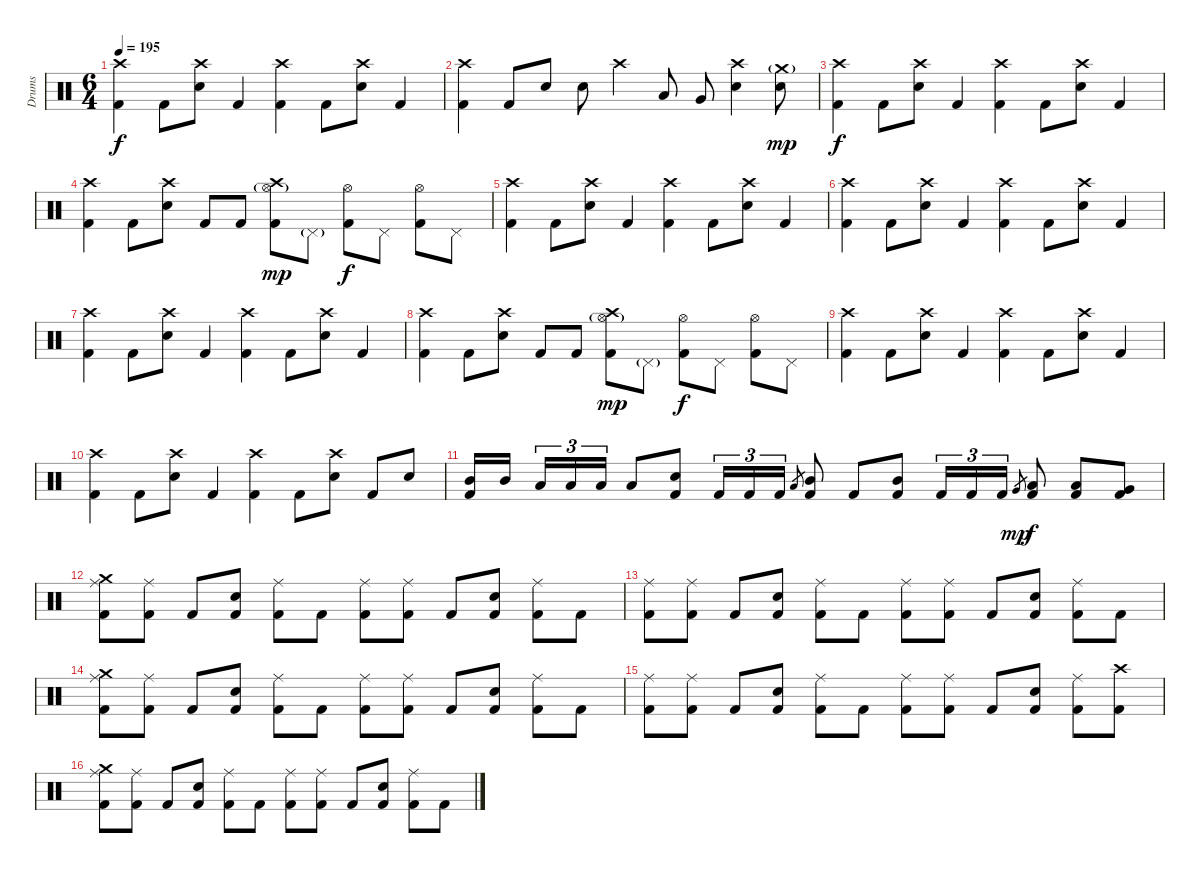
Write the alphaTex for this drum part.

\track ("Drums" "Drums") {instrument percussion}
\staff {score}
\articulation defaults
\ts (6 4)
\tempo 195
\clef neutral
\ks c
("Crash high (hit)" "Kick (hit) 2").4{dy f} "Kick (hit) 2".8 ("Crash high (hit)" "Electric Snare (hit)").8 "Kick (hit) 2".4 ("Crash high (hit)" "Kick (hit) 2").4 "Kick (hit) 2".8 ("Crash high (hit)" "Electric Snare (hit)").8 "Kick (hit) 2".4 |
("Crash high (hit)" "Kick (hit) 2").4 "Kick (hit) 2".8 "Electric Snare (hit)".8 "Electric Snare (hit)".8 "Crash high (hit)".4 "Low Tom (hit)".8 "Very Low Tom (hit)".8 ("Crash high (hit)" "Electric Snare (hit)").4 ("Crash medium (hit)"{g} "Electric Snare (hit)").8{dy mp} |
("Crash high (hit)" "Kick (hit) 2").4{dy f} "Kick (hit) 2".8 ("Crash high (hit)" "Electric Snare (hit)").8 "Kick (hit) 2".4 ("Crash high (hit)" "Kick (hit) 2").4 "Kick (hit) 2".8 ("Crash high (hit)" "Electric Snare (hit)").8 "Kick (hit) 2".4 |
("Crash high (hit)" "Kick (hit) 2").4 "Kick (hit) 2".8 ("Crash high (hit)" "Electric Snare (hit)").8 "Kick (hit) 2".8 "Kick (hit) 2".8 ("Crash high (hit)" "Hi-Hat (open)"{g} "Kick (hit) 2").8{dy mp} "Pedal Hi-Hat (hit)"{g}.8 ("Hi-Hat (open)" "Kick (hit) 2").8{dy f} "Pedal Hi-Hat (hit)".8 ("Hi-Hat (open)" "Kick (hit) 2").8 "Pedal Hi-Hat (hit)".8 |
("Crash high (hit)" "Kick (hit) 2").4 "Kick (hit) 2".8 ("Crash high (hit)" "Electric Snare (hit)").8 "Kick (hit) 2".4 ("Crash high (hit)" "Kick (hit) 2").4 "Kick (hit) 2".8 ("Crash high (hit)" "Electric Snare (hit)").8 "Kick (hit) 2".4 |
("Crash high (hit)" "Kick (hit) 2").4 "Kick (hit) 2".8 ("Crash high (hit)" "Electric Snare (hit)").8 "Kick (hit) 2".4 ("Crash high (hit)" "Kick (hit) 2").4 "Kick (hit) 2".8 ("Crash high (hit)" "Electric Snare (hit)").8 "Kick (hit) 2".4 |
("Crash high (hit)" "Kick (hit) 2").4 "Kick (hit) 2".8 ("Crash high (hit)" "Electric Snare (hit)").8 "Kick (hit) 2".4 ("Crash high (hit)" "Kick (hit) 2").4 "Kick (hit) 2".8 ("Crash high (hit)" "Electric Snare (hit)").8 "Kick (hit) 2".4 |
("Crash high (hit)" "Kick (hit) 2").4 "Kick (hit) 2".8 ("Crash high (hit)" "Electric Snare (hit)").8 "Kick (hit) 2".8 "Kick (hit) 2".8 ("Crash high (hit)" "Hi-Hat (open)"{g} "Kick (hit) 2").8{dy mp} "Pedal Hi-Hat (hit)"{g}.8 ("Hi-Hat (open)" "Kick (hit) 2").8{dy f} "Pedal Hi-Hat (hit)".8 ("Hi-Hat (open)" "Kick (hit) 2").8 "Pedal Hi-Hat (hit)".8 |
("Crash high (hit)" "Kick (hit) 2").4 "Kick (hit) 2".8 ("Crash high (hit)" "Electric Snare (hit)").8 "Kick (hit) 2".4 ("Crash high (hit)" "Kick (hit) 2").4 "Kick (hit) 2".8 ("Crash high (hit)" "Electric Snare (hit)").8 "Kick (hit) 2".4 |
("Crash high (hit)" "Kick (hit) 2").4 "Kick (hit) 2".8 ("Crash high (hit)" "Electric Snare (hit)").8 "Kick (hit) 2".4 ("Crash high (hit)" "Kick (hit) 2").4 "Kick (hit) 2".8 ("Crash high (hit)" "Electric Snare (hit)").8 "Kick (hit) 2".8 "Electric Snare (hit)".8 |
("Mid Tom (hit)" "Kick (hit) 2").16 "Mid Tom (hit)".16{beam splitsecondary} "Low Tom (hit)".16{tu (3 2)} "Low Tom (hit)".16{tu (3 2)} "Low Tom (hit)".16{tu (3 2)} "Low Tom (hit)".8 ("Electric Snare (hit)" "Kick (hit) 2").8 "Kick (hit) 2".16{tu (3 2)} "Kick (hit) 2".16{tu (3 2)} "Kick (hit) 2".16{tu (3 2)} "Low Tom (hit)".8{gr} ("Mid Tom (hit)" "Kick (hit) 2").8 "Kick (hit) 2".8 ("Mid Tom (hit)" "Kick (hit) 2").8 "Kick (hit) 2".16{tu (3 2)} "Kick (hit) 2".16{tu (3 2)} "Kick (hit) 2".16{tu (3 2)} "Very Low Tom (hit)".8{gr dy mp} ("Low Tom (hit)" "Kick (hit) 2").8{dy f} ("Low Tom (hit)" "Kick (hit) 2").8 ("Very Low Tom (hit)" "Kick (hit) 2").8 |
("Ride (middle)" "Crash medium (hit)" "Kick (hit) 2").8{volume 13} ("Ride (middle)" "Kick (hit) 2").8 "Kick (hit) 2".8 ("Electric Snare (hit)" "Kick (hit) 2").8 ("Ride (middle)" "Kick (hit) 2").8 "Kick (hit) 2".8 ("Ride (middle)" "Kick (hit) 2").8 ("Ride (middle)" "Kick (hit) 2").8 "Kick (hit) 2".8 ("Electric Snare (hit)" "Kick (hit) 2").8 ("Ride (middle)" "Kick (hit) 2").8 "Kick (hit) 2".8 |
("Ride (middle)" "Kick (hit) 2").8 ("Ride (middle)" "Kick (hit) 2").8 "Kick (hit) 2".8 ("Electric Snare (hit)" "Kick (hit) 2").8 ("Ride (middle)" "Kick (hit) 2").8 "Kick (hit) 2".8 ("Ride (middle)" "Kick (hit) 2").8 ("Ride (middle)" "Kick (hit) 2").8 "Kick (hit) 2".8 ("Electric Snare (hit)" "Kick (hit) 2").8 ("Ride (middle)" "Kick (hit) 2").8 "Kick (hit) 2".8 |
("Ride (middle)" "Crash medium (hit)" "Kick (hit) 2").8 ("Ride (middle)" "Kick (hit) 2").8 "Kick (hit) 2".8 ("Electric Snare (hit)" "Kick (hit) 2").8 ("Ride (middle)" "Kick (hit) 2").8 "Kick (hit) 2".8 ("Ride (middle)" "Kick (hit) 2").8 ("Ride (middle)" "Kick (hit) 2").8 "Kick (hit) 2".8 ("Electric Snare (hit)" "Kick (hit) 2").8 ("Ride (middle)" "Kick (hit) 2").8 "Kick (hit) 2".8 |
("Ride (middle)" "Kick (hit) 2").8 ("Ride (middle)" "Kick (hit) 2").8 "Kick (hit) 2".8 ("Electric Snare (hit)" "Kick (hit) 2").8 ("Ride (middle)" "Kick (hit) 2").8 "Kick (hit) 2".8 ("Ride (middle)" "Kick (hit) 2").8 ("Ride (middle)" "Kick (hit) 2").8 "Kick (hit) 2".8 ("Electric Snare (hit)" "Kick (hit) 2").8 ("Ride (middle)" "Kick (hit) 2").8 ("Crash high (hit)" "Kick (hit) 2").8 |
("Ride (middle)" "Crash medium (hit)" "Kick (hit) 2").8 ("Ride (middle)" "Kick (hit) 2").8 "Kick (hit) 2".8 ("Electric Snare (hit)" "Kick (hit) 2").8 ("Ride (middle)" "Kick (hit) 2").8 "Kick (hit) 2".8 ("Ride (middle)" "Kick (hit) 2").8 ("Ride (middle)" "Kick (hit) 2").8 "Kick (hit) 2".8 ("Electric Snare (hit)" "Kick (hit) 2").8 ("Ride (middle)" "Kick (hit) 2").8 "Kick (hit) 2".8
